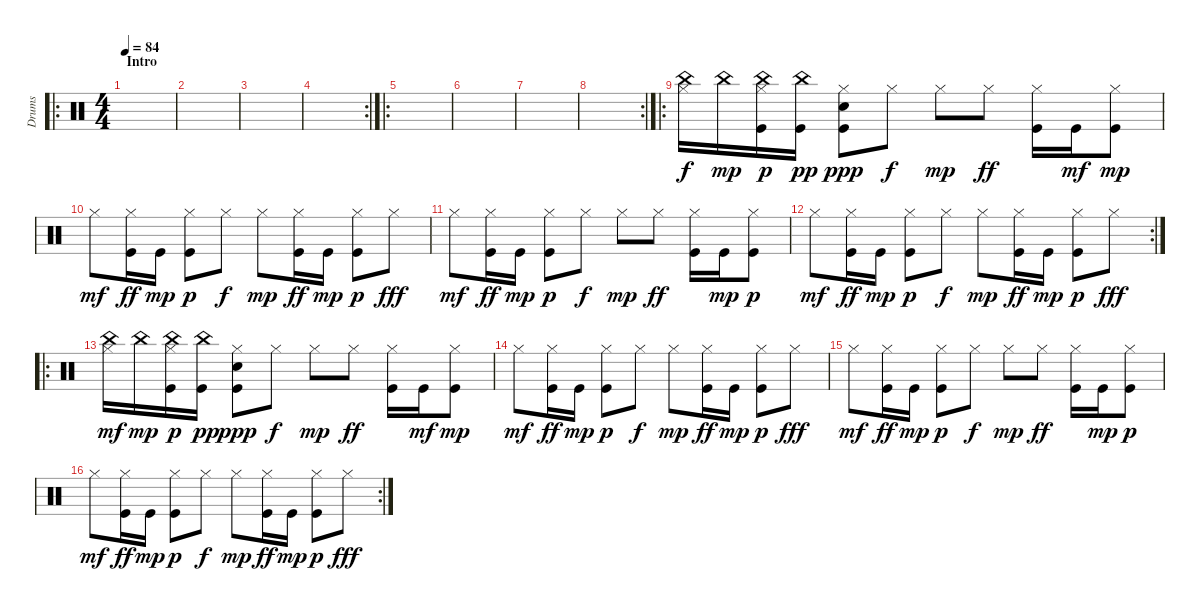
\track ("Drums" "Drums") {instrument percussion}
\staff {score}
\articulation defaults
\ro
\ts (4 4)
\section ("" "Intro")
\tempo 84
\clef neutral
\ks c
|
|
|
\rc 2
|
\ro
|
|
|
\rc 2
|
\ro
("Hi-Hat (closed)" "China (hit)").16 "China (hit)".16{dy mp} ("Hi-Hat (closed)" "Kick (hit)" "China (hit)").16{dy p} ("Kick (hit)" "China (hit)").16{dy pp} ("Hi-Hat (closed)" "Kick (hit)" "Snare (hit)").8{dy ppp} "Hi-Hat (closed)".8{dy f} "Hi-Hat (closed)".8{dy mp} "Hi-Hat (closed)".8{dy ff} ("Hi-Hat (closed)" "Kick (hit)").16 "Kick (hit)".16{dy mf} ("Hi-Hat (closed)" "Kick (hit)").8{dy mp} |
"Hi-Hat (closed)".8{dy mf} ("Hi-Hat (closed)" "Kick (hit)").16{dy ff} "Kick (hit)".16{dy mp} ("Hi-Hat (closed)" "Kick (hit)").8{dy p} "Hi-Hat (closed)".8{dy f} "Hi-Hat (closed)".8{dy mp} ("Hi-Hat (closed)" "Kick (hit)").16{dy ff} "Kick (hit)".16{dy mp} ("Hi-Hat (closed)" "Kick (hit)").8{dy p} "Hi-Hat (closed)".8{dy fff} |
"Hi-Hat (closed)".8{dy mf} ("Hi-Hat (closed)" "Kick (hit)").16{dy ff} "Kick (hit)".16{dy mp} ("Hi-Hat (closed)" "Kick (hit)").8{dy p} "Hi-Hat (closed)".8{dy f} "Hi-Hat (closed)".8{dy mp} "Hi-Hat (closed)".8{dy ff} ("Hi-Hat (closed)" "Kick (hit)").16 "Kick (hit)".16{dy mp} ("Hi-Hat (closed)" "Kick (hit)").8{dy p} |
\rc 2 "Hi-Hat (closed)".8{dy mf}
("Hi-Hat (closed)" "Kick (hit)").16{dy ff} "Kick (hit)".16{dy mp} ("Hi-Hat (closed)" "Kick (hit)").8{dy p} "Hi-Hat (closed)".8{dy f} "Hi-Hat (closed)".8{dy mp} ("Hi-Hat (closed)" "Kick (hit)").16{dy ff} "Kick (hit)".16{dy mp} ("Hi-Hat (closed)" "Kick (hit)").8{dy p} "Hi-Hat (closed)".8{dy fff} |
\ro
("Hi-Hat (closed)" "China (hit)").16{dy mf} "China (hit)".16{dy mp} ("Hi-Hat (closed)" "Kick (hit)" "China (hit)").16{dy p} ("Kick (hit)" "China (hit)").16{dy pp} ("Hi-Hat (closed)" "Kick (hit)" "Snare (hit)").8{dy ppp} "Hi-Hat (closed)".8{dy f} "Hi-Hat (closed)".8{dy mp} "Hi-Hat (closed)".8{dy ff} ("Hi-Hat (closed)" "Kick (hit)").16 "Kick (hit)".16{dy mf} ("Hi-Hat (closed)" "Kick (hit)").8{dy mp} |
"Hi-Hat (closed)".8{dy mf} ("Hi-Hat (closed)" "Kick (hit)").16{dy ff} "Kick (hit)".16{dy mp} ("Hi-Hat (closed)" "Kick (hit)").8{dy p} "Hi-Hat (closed)".8{dy f} "Hi-Hat (closed)".8{dy mp} ("Hi-Hat (closed)" "Kick (hit)").16{dy ff} "Kick (hit)".16{dy mp} ("Hi-Hat (closed)" "Kick (hit)").8{dy p} "Hi-Hat (closed)".8{dy fff} |
"Hi-Hat (closed)".8{dy mf} ("Hi-Hat (closed)" "Kick (hit)").16{dy ff} "Kick (hit)".16{dy mp} ("Hi-Hat (closed)" "Kick (hit)").8{dy p} "Hi-Hat (closed)".8{dy f} "Hi-Hat (closed)".8{dy mp} "Hi-Hat (closed)".8{dy ff} ("Hi-Hat (closed)" "Kick (hit)").16 "Kick (hit)".16{dy mp} ("Hi-Hat (closed)" "Kick (hit)").8{dy p} |
\rc 2 "Hi-Hat (closed)".8{dy mf}
("Hi-Hat (closed)" "Kick (hit)").16{dy ff} "Kick (hit)".16{dy mp} ("Hi-Hat (closed)" "Kick (hit)").8{dy p} "Hi-Hat (closed)".8{dy f} "Hi-Hat (closed)".8{dy mp} ("Hi-Hat (closed)" "Kick (hit)").16{dy ff} "Kick (hit)".16{dy mp} ("Hi-Hat (closed)" "Kick (hit)").8{dy p} "Hi-Hat (closed)".8{dy fff}
